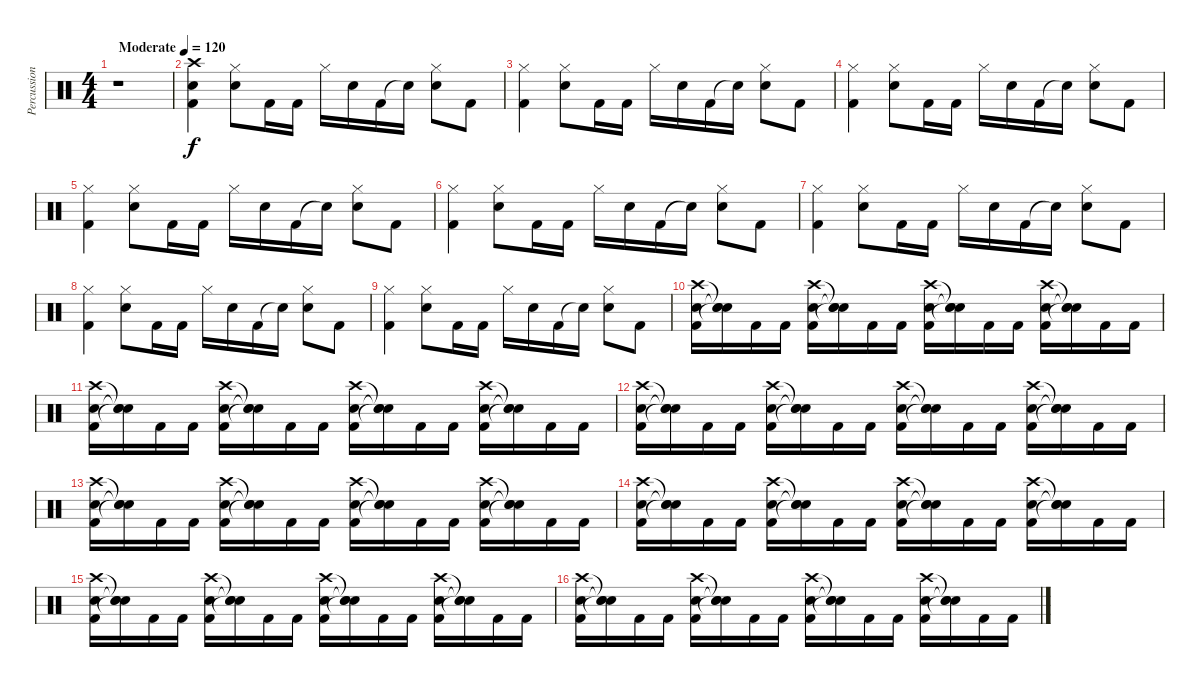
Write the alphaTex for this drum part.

\track ("Percussions" "Percussion") {instrument percussion}
\staff {score}
\articulation defaults
\ts (4 4)
\tempo (120 "Moderate")
\clef neutral
\ks c
r.1{dy f} |
("Kick (hit) 2" "Electric Snare (hit)" "Crash high (hit)").4 ("Electric Snare (hit)" "Hi-Hat (closed)").8 "Kick (hit) 2".16 "Kick (hit) 2".16 "Hi-Hat (closed)".16 "Electric Snare (hit)".16 "Kick (hit) 2".16 "Snare (hit)"{t}.16 ("Electric Snare (hit)" "Hi-Hat (closed)").8 "Kick (hit) 2".8 |
("Kick (hit) 2" "Hi-Hat (closed)").4 ("Electric Snare (hit)" "Hi-Hat (closed)").8 "Kick (hit) 2".16 "Kick (hit) 2".16 "Hi-Hat (closed)".16 "Electric Snare (hit)".16 "Kick (hit) 2".16 "Snare (hit)"{t}.16 ("Electric Snare (hit)" "Hi-Hat (closed)").8 "Kick (hit) 2".8 |
("Kick (hit) 2" "Hi-Hat (closed)").4 ("Electric Snare (hit)" "Hi-Hat (closed)").8 "Kick (hit) 2".16 "Kick (hit) 2".16 "Hi-Hat (closed)".16 "Electric Snare (hit)".16 "Kick (hit) 2".16 "Snare (hit)"{t}.16 ("Electric Snare (hit)" "Hi-Hat (closed)").8 "Kick (hit) 2".8 |
("Kick (hit) 2" "Hi-Hat (closed)").4 ("Electric Snare (hit)" "Hi-Hat (closed)").8 "Kick (hit) 2".16 "Kick (hit) 2".16 "Hi-Hat (closed)".16 "Electric Snare (hit)".16 "Kick (hit) 2".16 "Snare (hit)"{t}.16 ("Electric Snare (hit)" "Hi-Hat (closed)").8 "Kick (hit) 2".8 |
("Kick (hit) 2" "Hi-Hat (closed)").4 ("Electric Snare (hit)" "Hi-Hat (closed)").8 "Kick (hit) 2".16 "Kick (hit) 2".16 "Hi-Hat (closed)".16 "Electric Snare (hit)".16 "Kick (hit) 2".16 "Snare (hit)"{t}.16 ("Electric Snare (hit)" "Hi-Hat (closed)").8 "Kick (hit) 2".8 |
("Kick (hit) 2" "Hi-Hat (closed)").4 ("Electric Snare (hit)" "Hi-Hat (closed)").8 "Kick (hit) 2".16 "Kick (hit) 2".16 "Hi-Hat (closed)".16 "Electric Snare (hit)".16 "Kick (hit) 2".16 "Snare (hit)"{t}.16 ("Electric Snare (hit)" "Hi-Hat (closed)").8 "Kick (hit) 2".8 |
("Kick (hit) 2" "Hi-Hat (closed)").4 ("Electric Snare (hit)" "Hi-Hat (closed)").8 "Kick (hit) 2".16 "Kick (hit) 2".16 "Hi-Hat (closed)".16 "Electric Snare (hit)".16 "Kick (hit) 2".16 "Snare (hit)"{t}.16 ("Electric Snare (hit)" "Hi-Hat (closed)").8 "Kick (hit) 2".8 |
("Kick (hit) 2" "Hi-Hat (closed)").4 ("Electric Snare (hit)" "Hi-Hat (closed)").8 "Kick (hit) 2".16 "Kick (hit) 2".16 "Hi-Hat (closed)".16 "Electric Snare (hit)".16 "Kick (hit) 2".16 "Snare (hit)"{t}.16 ("Electric Snare (hit)" "Hi-Hat (closed)").8 "Kick (hit) 2".8 |
("Kick (hit) 2" "Electric Snare (hit)" "Crash high (hit)").16 ("Snare (hit)"{t} "Snare (hit)"{t} "Snare (hit)"{t}).16 "Kick (hit) 2".16 "Kick (hit) 2".16 ("Kick (hit) 2" "Electric Snare (hit)" "Crash high (hit)").16 ("Snare (hit)"{t} "Snare (hit)"{t} "Snare (hit)"{t}).16 "Kick (hit) 2".16 "Kick (hit) 2".16 ("Kick (hit) 2" "Electric Snare (hit)" "Crash high (hit)").16 ("Snare (hit)"{t} "Snare (hit)"{t} "Snare (hit)"{t}).16 "Kick (hit) 2".16 "Kick (hit) 2".16 ("Kick (hit) 2" "Electric Snare (hit)" "Crash high (hit)").16 ("Snare (hit)"{t} "Snare (hit)"{t} "Snare (hit)"{t}).16 "Kick (hit) 2".16 "Kick (hit) 2".16 |
("Kick (hit) 2" "Electric Snare (hit)" "Crash high (hit)").16 ("Snare (hit)"{t} "Snare (hit)"{t} "Snare (hit)"{t}).16 "Kick (hit) 2".16 "Kick (hit) 2".16 ("Kick (hit) 2" "Electric Snare (hit)" "Crash high (hit)").16 ("Snare (hit)"{t} "Snare (hit)"{t} "Snare (hit)"{t}).16 "Kick (hit) 2".16 "Kick (hit) 2".16 ("Kick (hit) 2" "Electric Snare (hit)" "Crash high (hit)").16 ("Snare (hit)"{t} "Snare (hit)"{t} "Snare (hit)"{t}).16 "Kick (hit) 2".16 "Kick (hit) 2".16 ("Kick (hit) 2" "Electric Snare (hit)" "Crash high (hit)").16 ("Snare (hit)"{t} "Snare (hit)"{t} "Snare (hit)"{t}).16 "Kick (hit) 2".16 "Kick (hit) 2".16 |
("Kick (hit) 2" "Electric Snare (hit)" "Crash high (hit)").16 ("Snare (hit)"{t} "Snare (hit)"{t} "Snare (hit)"{t}).16 "Kick (hit) 2".16 "Kick (hit) 2".16 ("Kick (hit) 2" "Electric Snare (hit)" "Crash high (hit)").16 ("Snare (hit)"{t} "Snare (hit)"{t} "Snare (hit)"{t}).16 "Kick (hit) 2".16 "Kick (hit) 2".16 ("Kick (hit) 2" "Electric Snare (hit)" "Crash high (hit)").16 ("Snare (hit)"{t} "Snare (hit)"{t} "Snare (hit)"{t}).16 "Kick (hit) 2".16 "Kick (hit) 2".16 ("Kick (hit) 2" "Electric Snare (hit)" "Crash high (hit)").16 ("Snare (hit)"{t} "Snare (hit)"{t} "Snare (hit)"{t}).16 "Kick (hit) 2".16 "Kick (hit) 2".16 |
("Kick (hit) 2" "Electric Snare (hit)" "Crash high (hit)").16 ("Snare (hit)"{t} "Snare (hit)"{t} "Snare (hit)"{t}).16 "Kick (hit) 2".16 "Kick (hit) 2".16 ("Kick (hit) 2" "Electric Snare (hit)" "Crash high (hit)").16 ("Snare (hit)"{t} "Snare (hit)"{t} "Snare (hit)"{t}).16 "Kick (hit) 2".16 "Kick (hit) 2".16 ("Kick (hit) 2" "Electric Snare (hit)" "Crash high (hit)").16 ("Snare (hit)"{t} "Snare (hit)"{t} "Snare (hit)"{t}).16 "Kick (hit) 2".16 "Kick (hit) 2".16 ("Kick (hit) 2" "Electric Snare (hit)" "Crash high (hit)").16 ("Snare (hit)"{t} "Snare (hit)"{t} "Snare (hit)"{t}).16 "Kick (hit) 2".16 "Kick (hit) 2".16 |
("Kick (hit) 2" "Electric Snare (hit)" "Crash high (hit)").16 ("Snare (hit)"{t} "Snare (hit)"{t} "Snare (hit)"{t}).16 "Kick (hit) 2".16 "Kick (hit) 2".16 ("Kick (hit) 2" "Electric Snare (hit)" "Crash high (hit)").16 ("Snare (hit)"{t} "Snare (hit)"{t} "Snare (hit)"{t}).16 "Kick (hit) 2".16 "Kick (hit) 2".16 ("Kick (hit) 2" "Electric Snare (hit)" "Crash high (hit)").16 ("Snare (hit)"{t} "Snare (hit)"{t} "Snare (hit)"{t}).16 "Kick (hit) 2".16 "Kick (hit) 2".16 ("Kick (hit) 2" "Electric Snare (hit)" "Crash high (hit)").16 ("Snare (hit)"{t} "Snare (hit)"{t} "Snare (hit)"{t}).16 "Kick (hit) 2".16 "Kick (hit) 2".16 |
("Kick (hit) 2" "Electric Snare (hit)" "Crash high (hit)").16 ("Snare (hit)"{t} "Snare (hit)"{t} "Snare (hit)"{t}).16 "Kick (hit) 2".16 "Kick (hit) 2".16 ("Kick (hit) 2" "Electric Snare (hit)" "Crash high (hit)").16 ("Snare (hit)"{t} "Snare (hit)"{t} "Snare (hit)"{t}).16 "Kick (hit) 2".16 "Kick (hit) 2".16 ("Kick (hit) 2" "Electric Snare (hit)" "Crash high (hit)").16 ("Snare (hit)"{t} "Snare (hit)"{t} "Snare (hit)"{t}).16 "Kick (hit) 2".16 "Kick (hit) 2".16 ("Kick (hit) 2" "Electric Snare (hit)" "Crash high (hit)").16 ("Snare (hit)"{t} "Snare (hit)"{t} "Snare (hit)"{t}).16 "Kick (hit) 2".16 "Kick (hit) 2".16 |
("Kick (hit) 2" "Electric Snare (hit)" "Crash high (hit)").16 ("Snare (hit)"{t} "Snare (hit)"{t} "Snare (hit)"{t}).16 "Kick (hit) 2".16 "Kick (hit) 2".16 ("Kick (hit) 2" "Electric Snare (hit)" "Crash high (hit)").16 ("Snare (hit)"{t} "Snare (hit)"{t} "Snare (hit)"{t}).16 "Kick (hit) 2".16 "Kick (hit) 2".16 ("Kick (hit) 2" "Electric Snare (hit)" "Crash high (hit)").16 ("Snare (hit)"{t} "Snare (hit)"{t} "Snare (hit)"{t}).16 "Kick (hit) 2".16 "Kick (hit) 2".16 ("Kick (hit) 2" "Electric Snare (hit)" "Crash high (hit)").16 ("Snare (hit)"{t} "Snare (hit)"{t} "Snare (hit)"{t}).16 "Kick (hit) 2".16 "Kick (hit) 2".16
